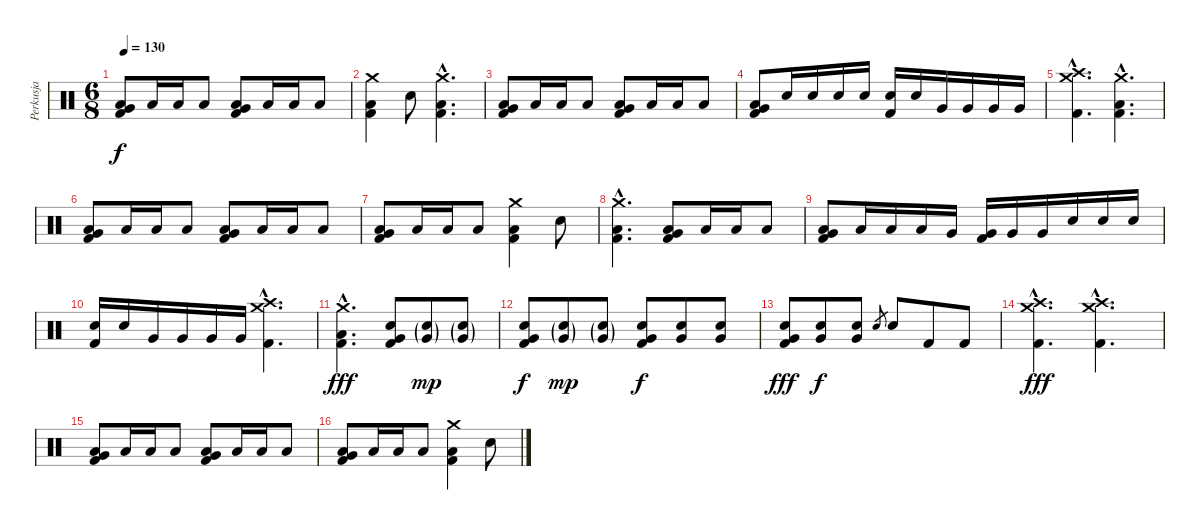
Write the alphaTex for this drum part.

\track ("Perkusja" "Perkusja") {instrument percussion}
\staff {score}
\articulation defaults
\ts (6 8)
\tempo 130
\clef neutral
\ks c
("Very Low Tom (hit)" "Low Floor Tom (hit)" "Kick (hit) 2").8{dy f} "Low Floor Tom (hit)".16 "Low Floor Tom (hit)".16 "Low Floor Tom (hit)".8 ("Very Low Tom (hit)" "Low Floor Tom (hit)" "Kick (hit) 2").8 "Low Floor Tom (hit)".16 "Low Floor Tom (hit)".16 "Low Floor Tom (hit)".8 |
("Crash medium (hit)" "Low Floor Tom (hit)" "Kick (hit) 2").4 "Electric Snare (hit)".8 ("Crash medium (hit)"{hac} "Low Floor Tom (hit)"{hac} "Kick (hit) 2"{hac}).4{d} |
("Very Low Tom (hit)" "Low Floor Tom (hit)" "Kick (hit) 2").8 "Low Floor Tom (hit)".16 "Low Floor Tom (hit)".16 "Low Floor Tom (hit)".8 ("Very Low Tom (hit)" "Low Floor Tom (hit)" "Kick (hit) 2").8 "Low Floor Tom (hit)".16 "Low Floor Tom (hit)".16 "Low Floor Tom (hit)".8 |
("Very Low Tom (hit)" "Low Floor Tom (hit)" "Kick (hit) 2").8 "Electric Snare (hit)".16 "Electric Snare (hit)".16 "Electric Snare (hit)".16 "Electric Snare (hit)".16 ("Electric Snare (hit)" "Kick (hit) 2").16 "Electric Snare (hit)".16 "Very Low Tom (hit)".16 "Very Low Tom (hit)".16 "Very Low Tom (hit)".16 "Very Low Tom (hit)".16 |
("Crash high (hit)"{hac} "Crash medium (hit)"{hac} "Kick (hit) 2"{hac}).4{d} ("Crash medium (hit)"{hac} "Low Floor Tom (hit)"{hac} "Kick (hit) 2"{hac}).4{d} |
("Very Low Tom (hit)" "Low Floor Tom (hit)" "Kick (hit) 2").8 "Low Floor Tom (hit)".16 "Low Floor Tom (hit)".16 "Low Floor Tom (hit)".8 ("Very Low Tom (hit)" "Low Floor Tom (hit)" "Kick (hit) 2").8 "Low Floor Tom (hit)".16 "Low Floor Tom (hit)".16 "Low Floor Tom (hit)".8 |
("Very Low Tom (hit)" "Low Floor Tom (hit)" "Kick (hit) 2").8 "Low Floor Tom (hit)".16 "Low Floor Tom (hit)".16 "Low Floor Tom (hit)".8 ("Crash medium (hit)" "Low Floor Tom (hit)" "Kick (hit) 2").4 "Electric Snare (hit)".8 |
("Crash medium (hit)"{hac} "Low Floor Tom (hit)"{hac} "Kick (hit) 2"{hac}).4{d} ("Very Low Tom (hit)" "Low Floor Tom (hit)" "Kick (hit) 2").8 "Low Floor Tom (hit)".16 "Low Floor Tom (hit)".16 "Low Floor Tom (hit)".8 |
("Very Low Tom (hit)" "Low Floor Tom (hit)" "Kick (hit) 2").8 "Low Floor Tom (hit)".16 "Low Floor Tom (hit)".16 "Low Floor Tom (hit)".16 "Very Low Tom (hit)".16 ("Very Low Tom (hit)" "Kick (hit) 2").16 "Very Low Tom (hit)".16 "Very Low Tom (hit)".16 "Electric Snare (hit)".16 "Electric Snare (hit)".16 "Electric Snare (hit)".16 |
("Electric Snare (hit)" "Kick (hit) 2").16 "Electric Snare (hit)".16 "Very Low Tom (hit)".16 "Very Low Tom (hit)".16 "Very Low Tom (hit)".16 "Very Low Tom (hit)".16 ("Crash high (hit)"{hac} "Crash medium (hit)"{hac} "Kick (hit) 2"{hac}).4{d} |
("Crash medium (hit)"{hac} "Low Floor Tom (hit)"{hac} "Kick (hit) 2"{hac}).4{d dy fff} ("Very Low Tom (hit)" "Electric Snare (hit)" "Kick (hit) 2").8 ("Very Low Tom (hit)"{g} "Electric Snare (hit)"{g}).8{dy mp} ("Very Low Tom (hit)"{g} "Electric Snare (hit)"{g}).8 |
("Very Low Tom (hit)" "Electric Snare (hit)" "Kick (hit) 2").8{dy f} ("Very Low Tom (hit)"{g} "Electric Snare (hit)"{g}).8{dy mp} ("Very Low Tom (hit)"{g} "Electric Snare (hit)"{g}).8 ("Very Low Tom (hit)" "Electric Snare (hit)" "Kick (hit) 2").8{dy f} ("Very Low Tom (hit)" "Electric Snare (hit)").8 ("Very Low Tom (hit)" "Electric Snare (hit)").8 |
("Very Low Tom (hit)" "Electric Snare (hit)" "Kick (hit) 2").8{dy fff} ("Very Low Tom (hit)" "Electric Snare (hit)").8{dy f} ("Very Low Tom (hit)" "Electric Snare (hit)").8 "Electric Snare (hit)".8{gr} "Electric Snare (hit)".8 "Kick (hit) 2".8 "Kick (hit) 2".8 |
("Crash high (hit)"{hac} "Crash medium (hit)"{hac} "Kick (hit) 2"{hac}).4{d dy fff volume 16} ("Crash high (hit)"{hac} "Crash medium (hit)"{hac} "Kick (hit) 2"{hac}).4{d} |
("Very Low Tom (hit)" "Low Floor Tom (hit)" "Kick (hit) 2").8 "Low Floor Tom (hit)".16 "Low Floor Tom (hit)".16 "Low Floor Tom (hit)".8 ("Very Low Tom (hit)" "Low Floor Tom (hit)" "Kick (hit) 2").8 "Low Floor Tom (hit)".16 "Low Floor Tom (hit)".16 "Low Floor Tom (hit)".8 |
("Very Low Tom (hit)" "Low Floor Tom (hit)" "Kick (hit) 2").8 "Low Floor Tom (hit)".16 "Low Floor Tom (hit)".16 "Low Floor Tom (hit)".8 ("Crash medium (hit)" "Low Floor Tom (hit)" "Kick (hit) 2").4 "Electric Snare (hit)".8
